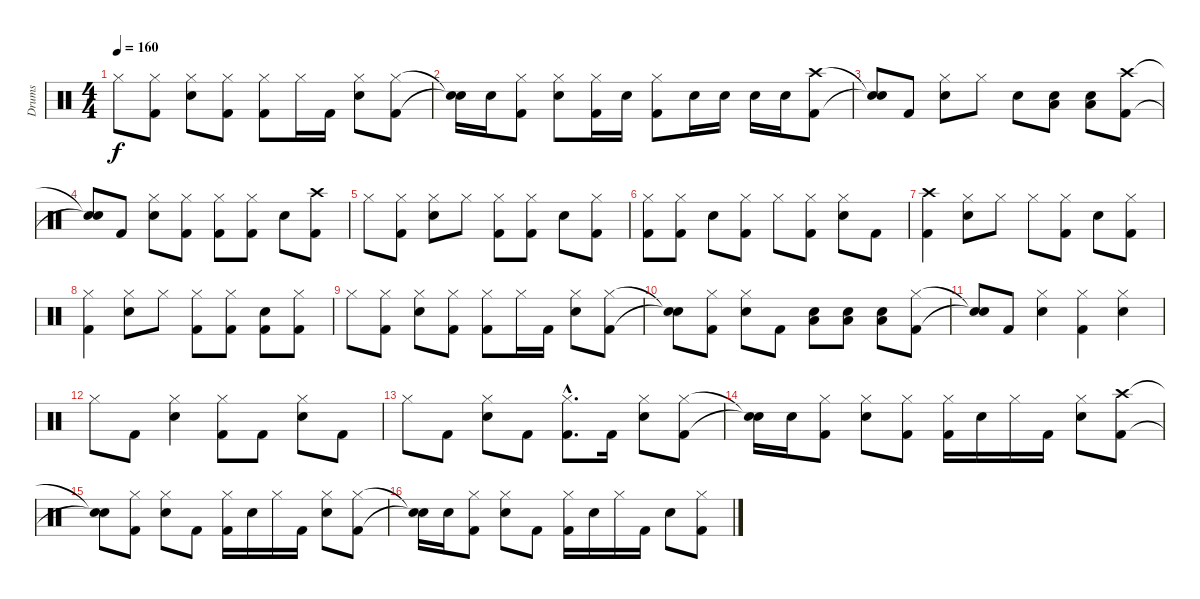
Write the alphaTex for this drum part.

\track ("Drums" "Drums") {instrument percussion}
\staff {score}
\articulation defaults
\ts (4 4)
\tempo 160
\clef neutral
\ks c "Hi-Hat (closed)".8{dy f}
("Hi-Hat (closed)" "Kick (hit) 2").8 ("Hi-Hat (closed)" "Snare (hit) 2").8 ("Hi-Hat (closed)" "Kick (hit) 2").8 ("Hi-Hat (closed)" "Kick (hit) 2").8 "Hi-Hat (closed)".16 "Kick (hit) 2".16 ("Hi-Hat (closed)" "Snare (hit) 2").8 ("Hi-Hat (closed)" "Kick (hit) 2").8 |
("Snare (hit)"{t} "Snare (hit)"{t}).16 "Snare (hit) 2".16 ("Hi-Hat (closed)" "Kick (hit) 2").8 ("Hi-Hat (closed)" "Snare (hit) 2").8 ("Hi-Hat (closed)" "Kick (hit) 2").16 "Snare (hit) 2".16 ("Hi-Hat (closed)" "Kick (hit) 2").8 "Snare (hit) 2".16 "Snare (hit) 2".16 "Snare (hit) 2".16 "Snare (hit) 2".16 ("Crash high (hit)" "Kick (hit) 2").8 |
("Snare (hit)"{t} "Snare (hit)"{t}).8 "Kick (hit) 2".8 ("Hi-Hat (closed)" "Snare (hit) 2").8 "Hi-Hat (closed)".8 "Snare (hit) 2".8 ("Snare (hit) 2" "Low Tom (hit)").8 ("Snare (hit) 2" "Low Tom (hit)").8 ("Crash high (hit)" "Kick (hit) 2").8 |
("Snare (hit)"{t} "Snare (hit)"{t}).8 "Kick (hit) 2".8 ("Hi-Hat (closed)" "Snare (hit) 2").8 ("Hi-Hat (closed)" "Kick (hit) 2").8 ("Hi-Hat (closed)" "Kick (hit) 2").8 ("Hi-Hat (closed)" "Kick (hit) 2").8 "Snare (hit) 2".8 ("Crash high (hit)" "Kick (hit) 2").8 |
"Hi-Hat (closed)".8 ("Hi-Hat (closed)" "Kick (hit) 2").8 ("Hi-Hat (closed)" "Snare (hit) 2").8 "Hi-Hat (closed)".8 ("Hi-Hat (closed)" "Kick (hit) 2").8 ("Hi-Hat (closed)" "Kick (hit) 2").8 "Snare (hit) 2".8 ("Hi-Hat (closed)" "Kick (hit) 2").8 |
("Hi-Hat (closed)" "Kick (hit) 2").8 ("Hi-Hat (closed)" "Kick (hit) 2").8 "Snare (hit) 2".8 ("Hi-Hat (closed)" "Kick (hit) 2").8 "Hi-Hat (closed)".8 ("Hi-Hat (closed)" "Kick (hit) 2").8 ("Hi-Hat (closed)" "Snare (hit) 2").8 "Kick (hit) 2".8 |
("Crash high (hit)" "Kick (hit) 2").4 ("Hi-Hat (closed)" "Snare (hit) 2").8 "Hi-Hat (closed)".8 "Hi-Hat (closed)".8 ("Hi-Hat (closed)" "Kick (hit) 2").8 "Snare (hit) 2".8 ("Hi-Hat (closed)" "Kick (hit) 2").8 |
("Hi-Hat (closed)" "Kick (hit) 2").4 ("Hi-Hat (closed)" "Snare (hit) 2").8 "Hi-Hat (closed)".8 ("Hi-Hat (closed)" "Kick (hit) 2").8 ("Hi-Hat (closed)" "Kick (hit) 2").8 ("Kick (hit) 2" "Snare (hit) 2").8 ("Hi-Hat (closed)" "Kick (hit) 2").8 |
"Hi-Hat (closed)".8 ("Hi-Hat (closed)" "Kick (hit) 2").8 ("Hi-Hat (closed)" "Snare (hit) 2").8 ("Hi-Hat (closed)" "Kick (hit) 2").8 ("Hi-Hat (closed)" "Kick (hit) 2").8 "Hi-Hat (closed)".16 "Kick (hit) 2".16 ("Hi-Hat (closed)" "Snare (hit) 2").8 ("Hi-Hat (closed)" "Kick (hit) 2").8 |
("Snare (hit)"{t} "Snare (hit)"{t}).8 ("Hi-Hat (closed)" "Kick (hit) 2").8 ("Hi-Hat (closed)" "Snare (hit) 2").8 "Kick (hit) 2".8 ("Snare (hit) 2" "Low Tom (hit)").8 ("Snare (hit) 2" "Low Tom (hit)").8 ("Snare (hit) 2" "Low Tom (hit)").8 ("Hi-Hat (closed)" "Kick (hit) 2").8 |
("Snare (hit)"{t} "Snare (hit)"{t}).8 "Kick (hit) 2".8 ("Hi-Hat (closed)" "Snare (hit) 2").4 ("Hi-Hat (closed)" "Kick (hit) 2").4 ("Hi-Hat (closed)" "Snare (hit) 2").4 |
"Hi-Hat (closed)".8 "Kick (hit) 2".8 ("Hi-Hat (closed)" "Snare (hit) 2").4 ("Hi-Hat (closed)" "Kick (hit) 2").8 "Kick (hit) 2".8 ("Hi-Hat (closed)" "Snare (hit) 2").8 "Kick (hit) 2".8 |
"Hi-Hat (closed)".8 "Kick (hit) 2".8 ("Hi-Hat (closed)" "Snare (hit) 2").8 "Kick (hit) 2".8 ("Hi-Hat (closed)"{hac} "Kick (hit) 2"{hac}).8{d} "Kick (hit) 2".16 ("Hi-Hat (closed)" "Snare (hit) 2").8 ("Hi-Hat (closed)" "Kick (hit) 2").8 |
("Snare (hit)"{t} "Snare (hit)"{t}).16 "Snare (hit) 2".16 ("Hi-Hat (closed)" "Kick (hit) 2").8 ("Hi-Hat (closed)" "Snare (hit) 2").8 ("Hi-Hat (closed)" "Kick (hit) 2").8 ("Hi-Hat (closed)" "Kick (hit) 2").16 "Snare (hit) 2".16 "Hi-Hat (closed)".16 "Kick (hit) 2".16 ("Hi-Hat (closed)" "Snare (hit) 2").8 ("Crash high (hit)" "Kick (hit) 2").8 |
("Snare (hit)"{t} "Snare (hit)"{t}).8 ("Hi-Hat (closed)" "Kick (hit) 2").8 ("Hi-Hat (closed)" "Snare (hit) 2").8 "Kick (hit) 2".8 ("Hi-Hat (closed)" "Kick (hit) 2").16 "Snare (hit) 2".16 "Hi-Hat (closed)".16 "Kick (hit) 2".16 ("Hi-Hat (closed)" "Snare (hit) 2").8 ("Hi-Hat (closed)" "Kick (hit) 2").8 |
("Snare (hit)"{t} "Snare (hit)"{t}).16 "Snare (hit) 2".16 ("Hi-Hat (closed)" "Kick (hit) 2").8 ("Hi-Hat (closed)" "Snare (hit) 2").8 "Kick (hit) 2".8 ("Hi-Hat (closed)" "Kick (hit) 2").16 "Snare (hit) 2".16 "Hi-Hat (closed)".16 "Kick (hit) 2".16 "Snare (hit) 2".8 ("Hi-Hat (closed)" "Kick (hit) 2").8
